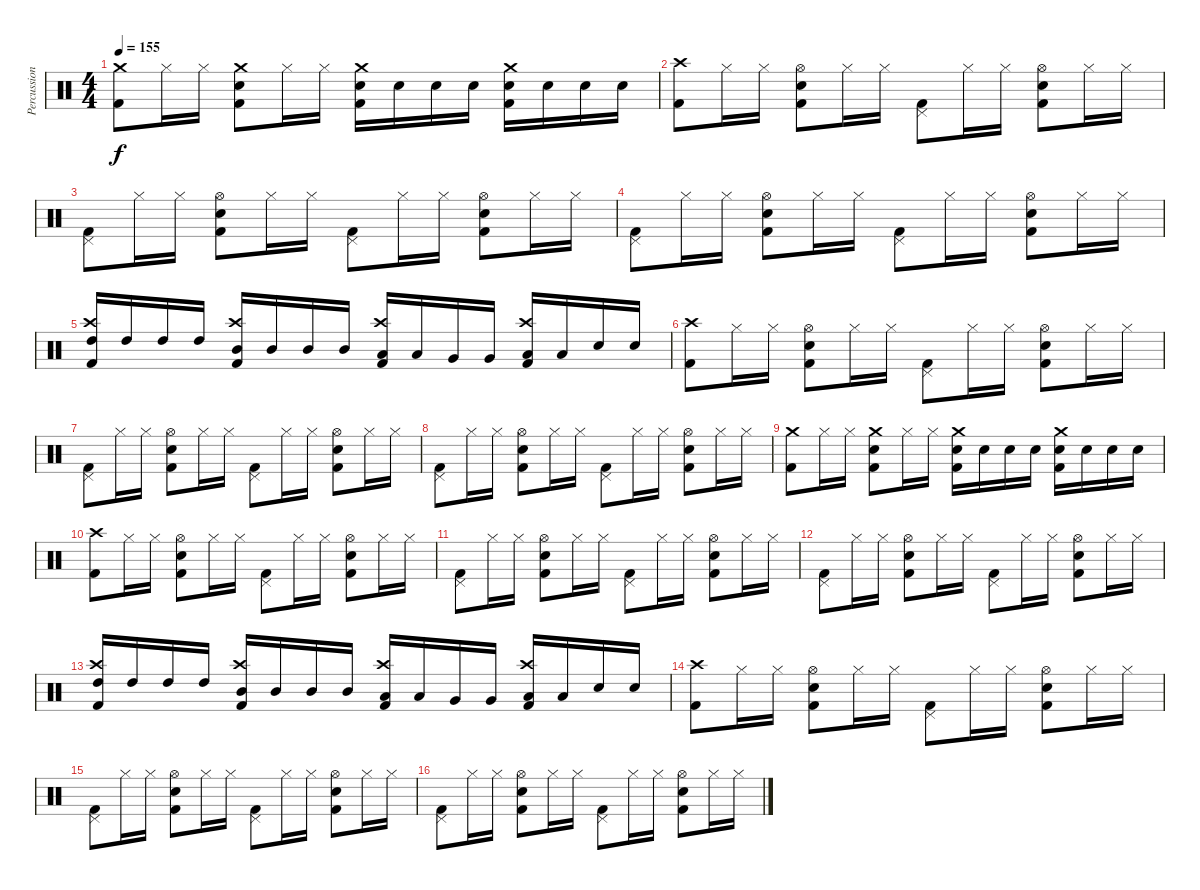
\track ("Percussion" "Percussion") {instrument percussion}
\staff {score}
\articulation defaults
\ts (4 4)
\tempo 155
\clef neutral
\ks c
("Crash medium (hit)" "Kick (hit) 2").8{dy f} "Hi-Hat (closed)".16 "Hi-Hat (closed)".16 ("Crash medium (hit)" "Electric Snare (hit)" "Kick (hit) 2").8 "Hi-Hat (closed)".16 "Hi-Hat (closed)".16 ("Crash medium (hit)" "Electric Snare (hit)" "Kick (hit) 2").16 "Electric Snare (hit)".16 "Electric Snare (hit)".16 "Electric Snare (hit)".16 ("Crash medium (hit)" "Electric Snare (hit)" "Kick (hit) 2").16 "Electric Snare (hit)".16 "Electric Snare (hit)".16 "Electric Snare (hit)".16 |
("Crash high (hit)" "Kick (hit) 2").8 "Hi-Hat (closed)".16 "Hi-Hat (closed)".16 ("Hi-Hat (open)" "Electric Snare (hit)" "Kick (hit) 2").8 "Hi-Hat (closed)".16 "Hi-Hat (closed)".16 ("Pedal Hi-Hat (hit)" "Kick (hit) 2").8 "Hi-Hat (closed)".16 "Hi-Hat (closed)".16 ("Hi-Hat (open)" "Electric Snare (hit)" "Kick (hit) 2").8 "Hi-Hat (closed)".16 "Hi-Hat (closed)".16 |
("Pedal Hi-Hat (hit)" "Kick (hit) 2").8 "Hi-Hat (closed)".16 "Hi-Hat (closed)".16 ("Hi-Hat (open)" "Electric Snare (hit)" "Kick (hit) 2").8 "Hi-Hat (closed)".16 "Hi-Hat (closed)".16 ("Pedal Hi-Hat (hit)" "Kick (hit) 2").8 "Hi-Hat (closed)".16 "Hi-Hat (closed)".16 ("Hi-Hat (open)" "Electric Snare (hit)" "Kick (hit) 2").8 "Hi-Hat (closed)".16 "Hi-Hat (closed)".16 |
("Pedal Hi-Hat (hit)" "Kick (hit) 2").8 "Hi-Hat (closed)".16 "Hi-Hat (closed)".16 ("Hi-Hat (open)" "Electric Snare (hit)" "Kick (hit) 2").8 "Hi-Hat (closed)".16 "Hi-Hat (closed)".16 ("Pedal Hi-Hat (hit)" "Kick (hit) 2").8 "Hi-Hat (closed)".16 "Hi-Hat (closed)".16 ("Hi-Hat (open)" "Electric Snare (hit)" "Kick (hit) 2").8 "Hi-Hat (closed)".16 "Hi-Hat (closed)".16 |
("Crash high (hit)" "High Tom (hit)" "Kick (hit) 2").16 "High Tom (hit)".16 "High Tom (hit)".16 "High Tom (hit)".16 ("Crash high (hit)" "Mid Tom (hit)" "Kick (hit) 2").16 "Mid Tom (hit)".16 "Mid Tom (hit)".16 "Mid Tom (hit)".16 ("Crash high (hit)" "Low Tom (hit)" "Kick (hit) 2").16 "Low Tom (hit)".16 "Very Low Tom (hit)".16 "Very Low Tom (hit)".16 ("Crash high (hit)" "Low Floor Tom (hit)" "Kick (hit) 2").16 "Low Floor Tom (hit)".16 "Electric Snare (hit)".16 "Electric Snare (hit)".16 |
("Crash high (hit)" "Kick (hit) 2").8 "Hi-Hat (closed)".16 "Hi-Hat (closed)".16 ("Hi-Hat (open)" "Electric Snare (hit)" "Kick (hit) 2").8 "Hi-Hat (closed)".16 "Hi-Hat (closed)".16 ("Pedal Hi-Hat (hit)" "Kick (hit) 2").8 "Hi-Hat (closed)".16 "Hi-Hat (closed)".16 ("Hi-Hat (open)" "Electric Snare (hit)" "Kick (hit) 2").8 "Hi-Hat (closed)".16 "Hi-Hat (closed)".16 |
("Pedal Hi-Hat (hit)" "Kick (hit) 2").8 "Hi-Hat (closed)".16 "Hi-Hat (closed)".16 ("Hi-Hat (open)" "Electric Snare (hit)" "Kick (hit) 2").8 "Hi-Hat (closed)".16 "Hi-Hat (closed)".16 ("Pedal Hi-Hat (hit)" "Kick (hit) 2").8 "Hi-Hat (closed)".16 "Hi-Hat (closed)".16 ("Hi-Hat (open)" "Electric Snare (hit)" "Kick (hit) 2").8 "Hi-Hat (closed)".16 "Hi-Hat (closed)".16 |
("Pedal Hi-Hat (hit)" "Kick (hit) 2").8 "Hi-Hat (closed)".16 "Hi-Hat (closed)".16 ("Hi-Hat (open)" "Electric Snare (hit)" "Kick (hit) 2").8 "Hi-Hat (closed)".16 "Hi-Hat (closed)".16 ("Pedal Hi-Hat (hit)" "Kick (hit) 2").8 "Hi-Hat (closed)".16 "Hi-Hat (closed)".16 ("Hi-Hat (open)" "Electric Snare (hit)" "Kick (hit) 2").8 "Hi-Hat (closed)".16 "Hi-Hat (closed)".16 |
("Crash medium (hit)" "Kick (hit) 2").8 "Hi-Hat (closed)".16 "Hi-Hat (closed)".16 ("Crash medium (hit)" "Electric Snare (hit)" "Kick (hit) 2").8 "Hi-Hat (closed)".16 "Hi-Hat (closed)".16 ("Crash medium (hit)" "Electric Snare (hit)" "Kick (hit) 2").16 "Electric Snare (hit)".16 "Electric Snare (hit)".16 "Electric Snare (hit)".16 ("Crash medium (hit)" "Electric Snare (hit)" "Kick (hit) 2").16 "Electric Snare (hit)".16 "Electric Snare (hit)".16 "Electric Snare (hit)".16 |
("Crash high (hit)" "Kick (hit) 2").8 "Hi-Hat (closed)".16 "Hi-Hat (closed)".16 ("Hi-Hat (open)" "Electric Snare (hit)" "Kick (hit) 2").8 "Hi-Hat (closed)".16 "Hi-Hat (closed)".16 ("Pedal Hi-Hat (hit)" "Kick (hit) 2").8 "Hi-Hat (closed)".16 "Hi-Hat (closed)".16 ("Hi-Hat (open)" "Electric Snare (hit)" "Kick (hit) 2").8 "Hi-Hat (closed)".16 "Hi-Hat (closed)".16 |
("Pedal Hi-Hat (hit)" "Kick (hit) 2").8 "Hi-Hat (closed)".16 "Hi-Hat (closed)".16 ("Hi-Hat (open)" "Electric Snare (hit)" "Kick (hit) 2").8 "Hi-Hat (closed)".16 "Hi-Hat (closed)".16 ("Pedal Hi-Hat (hit)" "Kick (hit) 2").8 "Hi-Hat (closed)".16 "Hi-Hat (closed)".16 ("Hi-Hat (open)" "Electric Snare (hit)" "Kick (hit) 2").8 "Hi-Hat (closed)".16 "Hi-Hat (closed)".16 |
("Pedal Hi-Hat (hit)" "Kick (hit) 2").8 "Hi-Hat (closed)".16 "Hi-Hat (closed)".16 ("Hi-Hat (open)" "Electric Snare (hit)" "Kick (hit) 2").8 "Hi-Hat (closed)".16 "Hi-Hat (closed)".16 ("Pedal Hi-Hat (hit)" "Kick (hit) 2").8 "Hi-Hat (closed)".16 "Hi-Hat (closed)".16 ("Hi-Hat (open)" "Electric Snare (hit)" "Kick (hit) 2").8 "Hi-Hat (closed)".16 "Hi-Hat (closed)".16 |
("Crash high (hit)" "High Tom (hit)" "Kick (hit) 2").16 "High Tom (hit)".16 "High Tom (hit)".16 "High Tom (hit)".16 ("Crash high (hit)" "Mid Tom (hit)" "Kick (hit) 2").16 "Mid Tom (hit)".16 "Mid Tom (hit)".16 "Mid Tom (hit)".16 ("Crash high (hit)" "Low Tom (hit)" "Kick (hit) 2").16 "Low Tom (hit)".16 "Very Low Tom (hit)".16 "Very Low Tom (hit)".16 ("Crash high (hit)" "Low Floor Tom (hit)" "Kick (hit) 2").16 "Low Floor Tom (hit)".16 "Electric Snare (hit)".16 "Electric Snare (hit)".16 |
("Crash high (hit)" "Kick (hit) 2").8 "Hi-Hat (closed)".16 "Hi-Hat (closed)".16 ("Hi-Hat (open)" "Electric Snare (hit)" "Kick (hit) 2").8 "Hi-Hat (closed)".16 "Hi-Hat (closed)".16 ("Pedal Hi-Hat (hit)" "Kick (hit) 2").8 "Hi-Hat (closed)".16 "Hi-Hat (closed)".16 ("Hi-Hat (open)" "Electric Snare (hit)" "Kick (hit) 2").8 "Hi-Hat (closed)".16 "Hi-Hat (closed)".16 |
("Pedal Hi-Hat (hit)" "Kick (hit) 2").8 "Hi-Hat (closed)".16 "Hi-Hat (closed)".16 ("Hi-Hat (open)" "Electric Snare (hit)" "Kick (hit) 2").8 "Hi-Hat (closed)".16 "Hi-Hat (closed)".16 ("Pedal Hi-Hat (hit)" "Kick (hit) 2").8 "Hi-Hat (closed)".16 "Hi-Hat (closed)".16 ("Hi-Hat (open)" "Electric Snare (hit)" "Kick (hit) 2").8 "Hi-Hat (closed)".16 "Hi-Hat (closed)".16 |
("Pedal Hi-Hat (hit)" "Kick (hit) 2").8 "Hi-Hat (closed)".16 "Hi-Hat (closed)".16 ("Hi-Hat (open)" "Electric Snare (hit)" "Kick (hit) 2").8 "Hi-Hat (closed)".16 "Hi-Hat (closed)".16 ("Pedal Hi-Hat (hit)" "Kick (hit) 2").8 "Hi-Hat (closed)".16 "Hi-Hat (closed)".16 ("Hi-Hat (open)" "Electric Snare (hit)" "Kick (hit) 2").8 "Hi-Hat (closed)".16 "Hi-Hat (closed)".16
